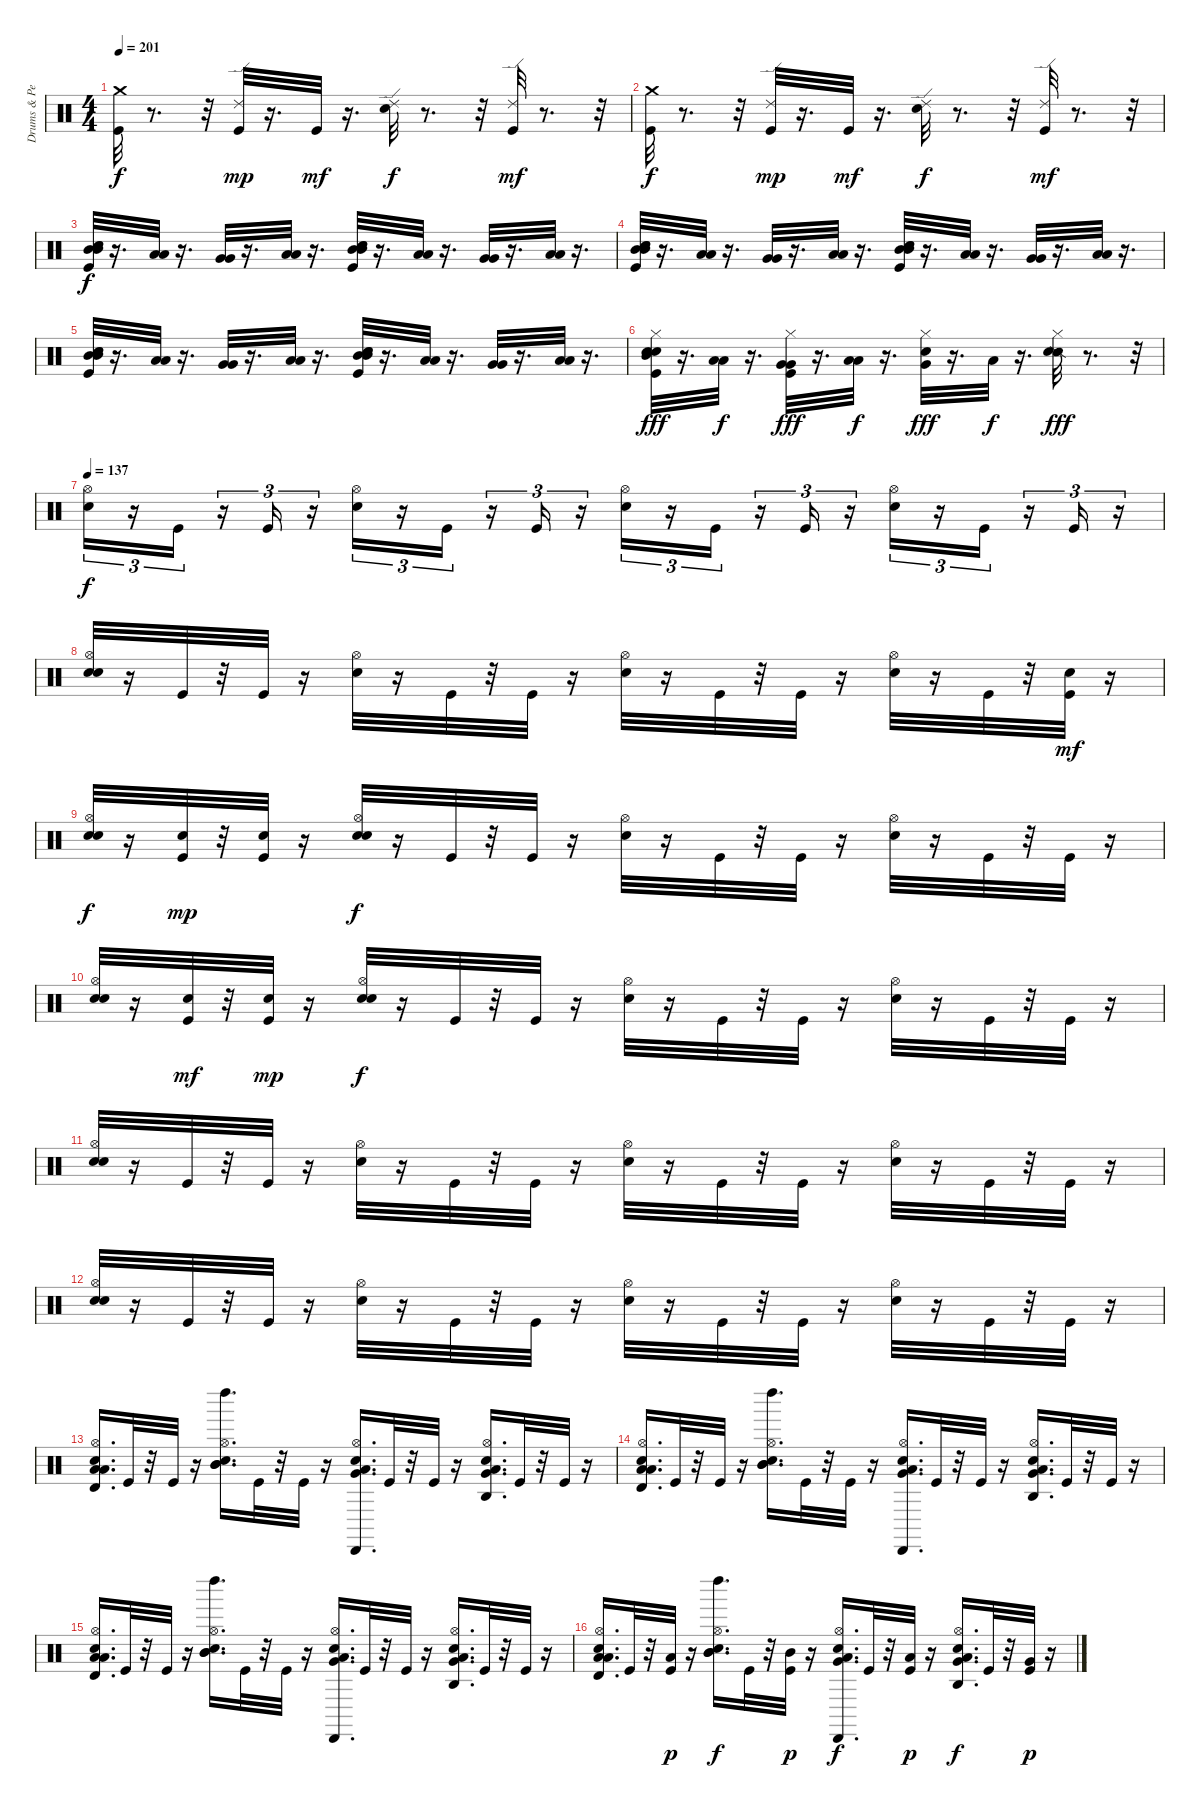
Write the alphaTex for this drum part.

\track ("Drums & Percussion" "Drums & Pe") {instrument percussion}
\staff {score}
\articulation defaults
\ts (4 4)
\tempo 201
\clef neutral
\ks c
("Crash medium (hit)" "Kick (hit)").32{dy f} r.8{d} r.32 ("Ride (edge) 2" "Kick (hit)").32{dy mp} r.16{d} "Kick (hit)".32{dy mf} r.16{d} ("Ride (edge) 2" "Snare (hit) 2").32{dy f} r.8{d} r.32 ("Ride (edge) 2" "Kick (hit)").32{dy mf} r.8{d} r.32 |
("Crash medium (hit)" "Kick (hit)").32{dy f} r.8{d} r.32 ("Ride (edge) 2" "Kick (hit)").32{dy mp} r.16{d} "Kick (hit)".32{dy mf} r.16{d} ("Ride (edge) 2" "Snare (hit) 2").32{dy f} r.8{d} r.32 ("Ride (edge) 2" "Kick (hit)").32{dy mf} r.8{d} r.32 |
("Mid Tom (hit)" "Mid Tom (hit)" "Kick (hit)" "Snare (hit) 2" "Electric Snare (hit)").32{dy f} r.16{d} ("Low Tom (hit)" "Low Tom (hit)").32 r.16{d} ("Very Low Tom (hit)" "Very Low Tom (hit)").32 r.16{d} ("Low Floor Tom (hit)" "Low Floor Tom (hit)").32 r.16{d} ("Mid Tom (hit)" "Mid Tom (hit)" "Kick (hit)" "Snare (hit) 2" "Electric Snare (hit)").32 r.16{d} ("Low Tom (hit)" "Low Tom (hit)").32 r.16{d} ("Very Low Tom (hit)" "Very Low Tom (hit)").32 r.16{d} ("Low Floor Tom (hit)" "Low Floor Tom (hit)").32 r.16{d} |
("Mid Tom (hit)" "Mid Tom (hit)" "Kick (hit)" "Snare (hit) 2" "Electric Snare (hit)").32 r.16{d} ("Low Tom (hit)" "Low Tom (hit)").32 r.16{d} ("Very Low Tom (hit)" "Very Low Tom (hit)").32 r.16{d} ("Low Floor Tom (hit)" "Low Floor Tom (hit)").32 r.16{d} ("Mid Tom (hit)" "Mid Tom (hit)" "Kick (hit)" "Snare (hit) 2" "Electric Snare (hit)").32 r.16{d} ("Low Tom (hit)" "Low Tom (hit)").32 r.16{d} ("Very Low Tom (hit)" "Very Low Tom (hit)").32 r.16{d} ("Low Floor Tom (hit)" "Low Floor Tom (hit)").32 r.16{d} |
("Mid Tom (hit)" "Mid Tom (hit)" "Kick (hit)" "Snare (hit) 2" "Electric Snare (hit)").32 r.16{d} ("Low Tom (hit)" "Low Tom (hit)").32 r.16{d} ("Very Low Tom (hit)" "Very Low Tom (hit)").32 r.16{d} ("Low Floor Tom (hit)" "Low Floor Tom (hit)").32 r.16{d} ("Mid Tom (hit)" "Mid Tom (hit)" "Kick (hit)" "Snare (hit) 2" "Electric Snare (hit)").32 r.16{d} ("Low Tom (hit)" "Low Tom (hit)").32 r.16{d} ("Very Low Tom (hit)" "Very Low Tom (hit)").32 r.16{d} ("Low Floor Tom (hit)" "Low Floor Tom (hit)").32 r.16{d} |
("Mid Tom (hit)" "Hi-Hat (closed)" "Kick (hit)" "Electric Snare (hit)" "Snare (hit) 2").32{dy fff} r.16{d} ("Low Tom (hit)" "Low Tom (hit)").32{dy f} r.16{d} ("Very Low Tom (hit)" "Very Low Tom (hit)" "Hi-Hat (closed)" "Kick (hit)").32{dy fff} r.16{d} ("Low Floor Tom (hit)" "Low Floor Tom (hit)").32{dy f} r.16{d} ("Very Low Tom (hit)" "Hi-Hat (closed)" "Snare (hit) 2").32{dy fff} r.16{d} "Low Floor Tom (hit)".32{dy f} r.16{d} ("Snare (side stick) 2" "Hi-Hat (closed)" "Electric Snare (hit)").32{dy fff} r.8{d} r.32 |
\tempo 137
("Hi-Hat (open)" "Snare (hit) 2").16{tu (3 2) dy f} r.16{tu (3 2)} "Kick (hit)".16{tu (3 2)} r.16{tu (3 2)} "Kick (hit)".16{tu (3 2)} r.16{tu (3 2)} ("Hi-Hat (open)" "Snare (hit) 2").16{tu (3 2)} r.16{tu (3 2)} "Kick (hit)".16{tu (3 2)} r.16{tu (3 2)} "Kick (hit)".16{tu (3 2)} r.16{tu (3 2)} ("Hi-Hat (open)" "Snare (hit) 2").16{tu (3 2)} r.16{tu (3 2)} "Kick (hit)".16{tu (3 2)} r.16{tu (3 2)} "Kick (hit)".16{tu (3 2)} r.16{tu (3 2)} ("Hi-Hat (open)" "Snare (hit) 2").16{tu (3 2)} r.16{tu (3 2)} "Kick (hit)".16{tu (3 2)} r.16{tu (3 2)} "Kick (hit)".16{tu (3 2)} r.16{tu (3 2)} |
("Hi-Hat (open)" "Snare (hit) 2" "Hand Clap (hit)").32 r.16 "Kick (hit)".32 r.32 "Kick (hit)".32 r.16 ("Hi-Hat (open)" "Snare (hit) 2").32 r.16 "Kick (hit)".32 r.32 "Kick (hit)".32 r.16 ("Hi-Hat (open)" "Snare (hit) 2").32 r.16 "Kick (hit)".32 r.32 "Kick (hit)".32 r.16 ("Hi-Hat (open)" "Snare (hit) 2").32 r.16 "Kick (hit)".32 r.32 ("Kick (hit)" "Hand Clap (hit)").32{dy mf} r.16 |
("Hand Clap (hit)" "Hi-Hat (open)" "Snare (hit) 2").32{dy f} r.16 ("Hand Clap (hit)" "Kick (hit)").32{dy mp} r.32 ("Hand Clap (hit)" "Kick (hit)").32 r.16 ("Hand Clap (hit)" "Hi-Hat (open)" "Snare (hit) 2").32{dy f} r.16 "Kick (hit)".32 r.32 "Kick (hit)".32 r.16 ("Hi-Hat (open)" "Snare (hit) 2").32 r.16 "Kick (hit)".32 r.32 "Kick (hit)".32 r.16 ("Hi-Hat (open)" "Snare (hit) 2").32 r.16 "Kick (hit)".32 r.32 "Kick (hit)".32 r.16 |
("Hand Clap (hit)" "Hi-Hat (open)" "Snare (hit) 2").32 r.16 ("Hand Clap (hit)" "Kick (hit)").32{dy mf} r.32 ("Hand Clap (hit)" "Kick (hit)").32{dy mp} r.16 ("Hand Clap (hit)" "Hi-Hat (open)" "Snare (hit) 2").32{dy f} r.16 "Kick (hit)".32 r.32 "Kick (hit)".32 r.16 ("Hi-Hat (open)" "Snare (hit) 2").32 r.16 "Kick (hit)".32 r.32 "Kick (hit)".32 r.16 ("Hi-Hat (open)" "Snare (hit) 2").32 r.16 "Kick (hit)".32 r.32 "Kick (hit)".32 r.16 |
("Hand Clap (hit)" "Hi-Hat (open)" "Snare (hit) 2").32 r.16 "Kick (hit)".32 r.32 "Kick (hit)".32 r.16 ("Hi-Hat (open)" "Snare (hit) 2").32 r.16 "Kick (hit)".32 r.32 "Kick (hit)".32 r.16 ("Hi-Hat (open)" "Snare (hit) 2").32 r.16 "Kick (hit)".32 r.32 "Kick (hit)".32 r.16 ("Hi-Hat (open)" "Snare (hit) 2").32 r.16 "Kick (hit)".32 r.32 "Kick (hit)".32 r.16 |
("Hand Clap (hit)" "Hi-Hat (open)" "Snare (hit) 2").32 r.16 "Kick (hit)".32 r.32 "Kick (hit)".32 r.16 ("Hi-Hat (open)" "Snare (hit) 2").32 r.16 "Kick (hit)".32 r.32 "Kick (hit)".32 r.16 ("Hi-Hat (open)" "Snare (hit) 2").32 r.16 "Kick (hit)".32 r.32 "Kick (hit)".32 r.16 ("Hi-Hat (open)" "Snare (hit) 2").32 r.16 "Kick (hit)".32 r.32 "Kick (hit)".32 r.16 |
("Timbale high (hit)" "Low Floor Tom (hit)" "Low Floor Tom (hit)" "Hi-Hat (open)" "Snare (hit) 2").16{d} "Kick (hit)".32 r.32 "Kick (hit)".32 r.16 ("Left Maraca (hit)" "Mid Tom (hit)" "Mid Tom (hit)" "Hi-Hat (open)" "Snare (hit) 2").16{d} "Kick (hit)".32 r.32 "Kick (hit)".32 r.16 ("Cabasa (hit)" "Low Tom (hit)" "Very Low Tom (hit)" "Hi-Hat (open)" "Snare (hit) 2").16{d} "Kick (hit)".32 r.32 "Kick (hit)".32 r.16 ("Agogo high (hit)" "Very Low Tom (hit)" "Low Floor Tom (hit)" "Hi-Hat (open)" "Snare (hit) 2").16{d} "Kick (hit)".32 r.32 "Kick (hit)".32 r.16 |
("Timbale high (hit)" "Low Floor Tom (hit)" "Low Floor Tom (hit)" "Hi-Hat (open)" "Snare (hit) 2").16{d} "Kick (hit)".32 r.32 "Kick (hit)".32 r.16 ("Left Maraca (hit)" "Mid Tom (hit)" "Mid Tom (hit)" "Hi-Hat (open)" "Snare (hit) 2").16{d} "Kick (hit)".32 r.32 "Kick (hit)".32 r.16 ("Cabasa (hit)" "Low Tom (hit)" "Very Low Tom (hit)" "Hi-Hat (open)" "Snare (hit) 2").16{d} "Kick (hit)".32 r.32 "Kick (hit)".32 r.16 ("Agogo high (hit)" "Very Low Tom (hit)" "Low Floor Tom (hit)" "Hi-Hat (open)" "Snare (hit) 2").16{d} "Kick (hit)".32 r.32 "Kick (hit)".32 r.16 |
("Timbale high (hit)" "Low Floor Tom (hit)" "Low Floor Tom (hit)" "Hi-Hat (open)" "Snare (hit) 2").16{d} "Kick (hit)".32 r.32 "Kick (hit)".32 r.16 ("Left Maraca (hit)" "Mid Tom (hit)" "Mid Tom (hit)" "Hi-Hat (open)" "Snare (hit) 2").16{d} "Kick (hit)".32 r.32 "Kick (hit)".32 r.16 ("Cabasa (hit)" "Low Tom (hit)" "Very Low Tom (hit)" "Hi-Hat (open)" "Snare (hit) 2").16{d} "Kick (hit)".32 r.32 "Kick (hit)".32 r.16 ("Agogo high (hit)" "Very Low Tom (hit)" "Low Floor Tom (hit)" "Hi-Hat (open)" "Snare (hit) 2").16{d} "Kick (hit)".32 r.32 "Kick (hit)".32 r.16 |
("Timbale high (hit)" "Low Floor Tom (hit)" "Low Floor Tom (hit)" "Hi-Hat (open)" "Snare (hit) 2").16{d} "Kick (hit)".32 r.32 ("Low Floor Tom (hit)" "Kick (hit)").32{dy p} r.16 ("Left Maraca (hit)" "Mid Tom (hit)" "Mid Tom (hit)" "Hi-Hat (open)" "Snare (hit) 2").16{d dy f} "Kick (hit)".32 r.32 ("Mid Tom (hit)" "Kick (hit)").32{dy p} r.16 ("Cabasa (hit)" "Low Tom (hit)" "Very Low Tom (hit)" "Hi-Hat (open)" "Snare (hit) 2").16{d dy f} "Kick (hit)".32 r.32 ("Low Tom (hit)" "Kick (hit)").32{dy p} r.16 ("Agogo high (hit)" "Very Low Tom (hit)" "Low Floor Tom (hit)" "Hi-Hat (open)" "Snare (hit) 2").16{d dy f} "Kick (hit)".32 r.32 ("Very Low Tom (hit)" "Kick (hit)").32{dy p} r.16
